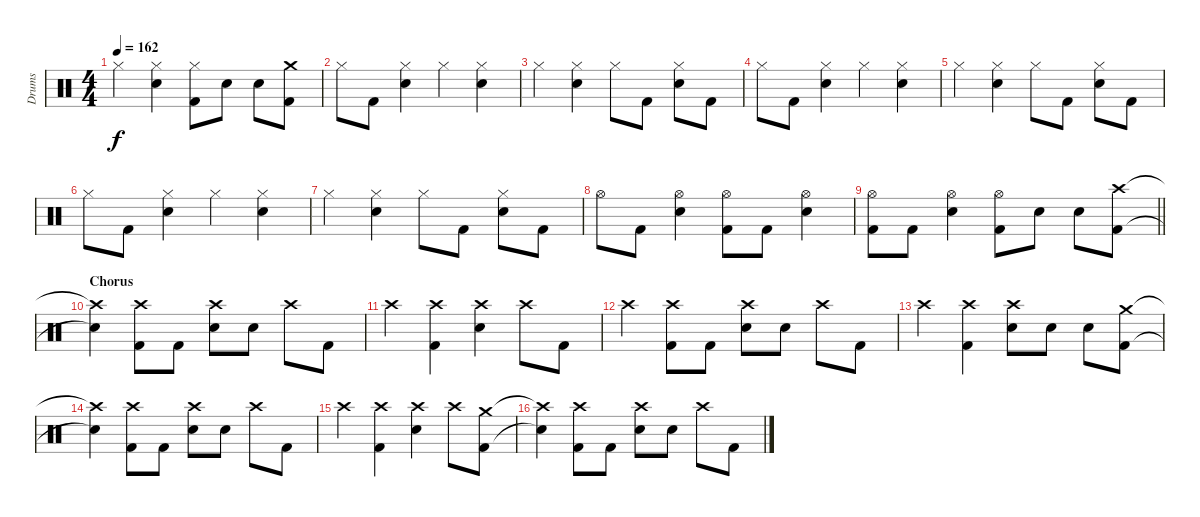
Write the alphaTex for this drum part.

\track ("Drums" "Drums") {instrument percussion}
\staff {score}
\articulation defaults
\ts (4 4)
\tempo 162
\clef neutral
\ks c "Hi-Hat (closed)".4{dy f}
("Snare (hit) 2" "Hi-Hat (closed)").4 ("Hi-Hat (closed)" "Kick (hit) 2").8 "Snare (hit) 2".8 "Snare (hit) 2".8 ("Crash medium (hit)" "Kick (hit) 2").8 |
"Hi-Hat (closed)".8 "Kick (hit) 2".8 ("Snare (hit) 2" "Hi-Hat (closed)").4 "Hi-Hat (closed)".4 ("Snare (hit) 2" "Hi-Hat (closed)").4 |
"Hi-Hat (closed)".4 ("Snare (hit) 2" "Hi-Hat (closed)").4 "Hi-Hat (closed)".8 "Kick (hit) 2".8 ("Snare (hit) 2" "Hi-Hat (closed)").8 "Kick (hit) 2".8 |
"Hi-Hat (closed)".8 "Kick (hit) 2".8 ("Snare (hit) 2" "Hi-Hat (closed)").4 "Hi-Hat (closed)".4 ("Snare (hit) 2" "Hi-Hat (closed)").4 |
"Hi-Hat (closed)".4 ("Snare (hit) 2" "Hi-Hat (closed)").4 "Hi-Hat (closed)".8 "Kick (hit) 2".8 ("Snare (hit) 2" "Hi-Hat (closed)").8 "Kick (hit) 2".8 |
"Hi-Hat (closed)".8 "Kick (hit) 2".8 ("Snare (hit) 2" "Hi-Hat (closed)").4 "Hi-Hat (closed)".4 ("Snare (hit) 2" "Hi-Hat (closed)").4 |
"Hi-Hat (closed)".4 ("Snare (hit) 2" "Hi-Hat (closed)").4 "Hi-Hat (closed)".8 "Kick (hit) 2".8 ("Snare (hit) 2" "Hi-Hat (closed)").8 "Kick (hit) 2".8 |
"Hi-Hat (open)".8 "Kick (hit) 2".8 ("Snare (hit) 2" "Hi-Hat (open)").4 ("Hi-Hat (open)" "Kick (hit) 2").8 "Kick (hit) 2".8 ("Snare (hit) 2" "Hi-Hat (open)").4 |
\barLineRight lightlight
("Hi-Hat (open)" "Kick (hit) 2").8 "Kick (hit) 2".8 ("Snare (hit) 2" "Hi-Hat (open)").4 ("Hi-Hat (open)" "Kick (hit) 2").8 "Snare (hit) 2".8 "Snare (hit) 2".8 ("Crash high (hit)" "Kick (hit) 2").8 |
\section ("" "Chorus")
("Crash high (hit)"{t} "Snare (hit)"{t}).4 ("Crash high (hit)" "Kick (hit) 2").8 "Kick (hit) 2".8 ("Crash high (hit)" "Snare (hit) 2").8 "Snare (hit) 2".8 "Crash high (hit)".8 "Kick (hit) 2".8 |
"Crash high (hit)".4 ("Crash high (hit)" "Kick (hit) 2").4 ("Crash high (hit)" "Snare (hit) 2").4 "Crash high (hit)".8 "Kick (hit) 2".8 |
"Crash high (hit)".4 ("Crash high (hit)" "Kick (hit) 2").8 "Kick (hit) 2".8 ("Crash high (hit)" "Snare (hit) 2").8 "Snare (hit) 2".8 "Crash high (hit)".8 "Kick (hit) 2".8 |
"Crash high (hit)".4 ("Crash high (hit)" "Kick (hit) 2").4 ("Crash high (hit)" "Snare (hit) 2").8 "Snare (hit) 2".8 "Snare (hit) 2".8 ("Crash medium (hit)" "Kick (hit) 2").8 |
("Crash high (hit)"{t} "Snare (hit)"{t}).4 ("Crash high (hit)" "Kick (hit) 2").8 "Kick (hit) 2".8 ("Crash high (hit)" "Snare (hit) 2").8 "Snare (hit) 2".8 "Crash high (hit)".8 "Kick (hit) 2".8 |
"Crash high (hit)".4 ("Crash high (hit)" "Kick (hit) 2").4 ("Crash high (hit)" "Snare (hit) 2").4 "Crash high (hit)".8 ("Crash medium (hit)" "Kick (hit) 2").8 |
("Crash high (hit)"{t} "Snare (hit)"{t}).4 ("Crash high (hit)" "Kick (hit) 2").8 "Kick (hit) 2".8 ("Crash high (hit)" "Snare (hit) 2").8 "Snare (hit) 2".8 "Crash high (hit)".8 "Kick (hit) 2".8
